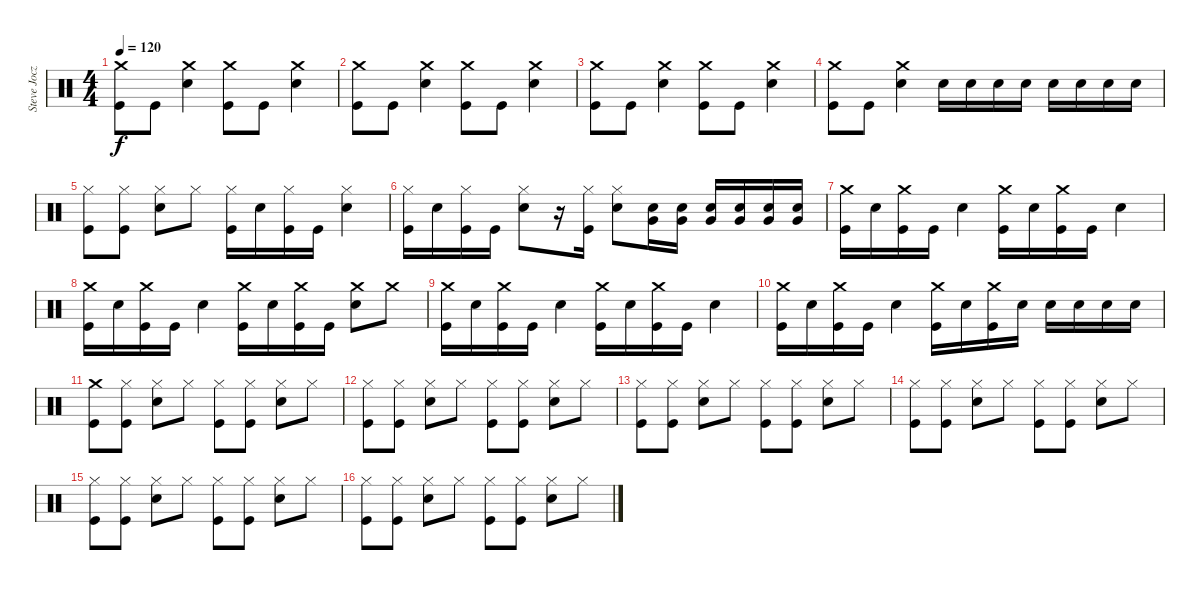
\track ("Steve Jocz (STEVO)" "Steve Jocz") {instrument percussion}
\staff {score}
\articulation defaults
\ts (4 4)
\tempo 120
\clef neutral
\ks c
("Crash medium (hit)" "Kick (hit)").8{dy f} "Kick (hit)".8 ("Crash medium (hit)" "Snare (hit) 2").4 ("Crash medium (hit)" "Kick (hit)").8 "Kick (hit)".8 ("Crash medium (hit)" "Snare (hit) 2").4 |
("Crash medium (hit)" "Kick (hit)").8 "Kick (hit)".8 ("Crash medium (hit)" "Snare (hit) 2").4 ("Crash medium (hit)" "Kick (hit)").8 "Kick (hit)".8 ("Crash medium (hit)" "Snare (hit) 2").4 |
("Crash medium (hit)" "Kick (hit)").8 "Kick (hit)".8 ("Crash medium (hit)" "Snare (hit) 2").4 ("Crash medium (hit)" "Kick (hit)").8 "Kick (hit)".8 ("Crash medium (hit)" "Snare (hit) 2").4 |
("Crash medium (hit)" "Kick (hit)").8 "Kick (hit)".8 ("Crash medium (hit)" "Snare (hit) 2").4 "Snare (hit) 2".16 "Snare (hit) 2".16 "Snare (hit) 2".16 "Snare (hit) 2".16 "Snare (hit) 2".16 "Snare (hit) 2".16 "Snare (hit) 2".16 "Snare (hit) 2".16 |
("Hi-Hat (closed)" "Kick (hit)").8 ("Hi-Hat (closed)" "Kick (hit)").8 ("Hi-Hat (closed)" "Snare (hit) 2").8 "Hi-Hat (closed)".8 ("Hi-Hat (closed)" "Kick (hit)").16 "Snare (hit) 2".16 ("Hi-Hat (closed)" "Kick (hit)").16 "Kick (hit)".16 ("Hi-Hat (closed)" "Snare (hit) 2").4 |
("Hi-Hat (closed)" "Kick (hit)").16 "Snare (hit) 2".16 ("Hi-Hat (closed)" "Kick (hit)").16 "Kick (hit)".16 ("Hi-Hat (closed)" "Snare (hit) 2").8 r.16 ("Hi-Hat (closed)" "Kick (hit)").16 ("Hi-Hat (closed)" "Snare (hit) 2").8 ("Very Low Tom (hit)" "Snare (hit) 2").16 ("Very Low Tom (hit)" "Snare (hit) 2").16 ("Very Low Tom (hit)" "Snare (hit) 2").16 ("Very Low Tom (hit)" "Snare (hit) 2").16 ("Very Low Tom (hit)" "Snare (hit) 2").16 ("Very Low Tom (hit)" "Snare (hit) 2").16 |
("Crash medium (hit)" "Kick (hit)").16 "Snare (hit) 2".16 ("Crash medium (hit)" "Kick (hit)").16 "Kick (hit)".16 "Snare (hit) 2".4 ("Crash medium (hit)" "Kick (hit)").16 "Snare (hit) 2".16 ("Crash medium (hit)" "Kick (hit)").16 "Kick (hit)".16 "Snare (hit) 2".4 |
("Crash medium (hit)" "Kick (hit)").16 "Snare (hit) 2".16 ("Crash medium (hit)" "Kick (hit)").16 "Kick (hit)".16 "Snare (hit) 2".4 ("Crash medium (hit)" "Kick (hit)").16 "Snare (hit) 2".16 ("Crash medium (hit)" "Kick (hit)").16 "Kick (hit)".16 ("Crash medium (hit)" "Snare (hit) 2").8 "Crash medium (hit)".8 |
("Crash medium (hit)" "Kick (hit)").16 "Snare (hit) 2".16 ("Crash medium (hit)" "Kick (hit)").16 "Kick (hit)".16 "Snare (hit) 2".4 ("Crash medium (hit)" "Kick (hit)").16 "Snare (hit) 2".16 ("Crash medium (hit)" "Kick (hit)").16 "Kick (hit)".16 "Snare (hit) 2".4 |
("Crash medium (hit)" "Kick (hit)").16 "Snare (hit) 2".16 ("Crash medium (hit)" "Kick (hit)").16 "Kick (hit)".16 "Snare (hit) 2".4 ("Crash medium (hit)" "Kick (hit)").16 "Snare (hit) 2".16 ("Crash medium (hit)" "Kick (hit)").16 "Snare (hit) 2".16 "Snare (hit) 2".16 "Snare (hit) 2".16 "Snare (hit) 2".16 "Snare (hit) 2".16 |
("Crash medium (hit)" "Kick (hit)").8 ("Hi-Hat (closed)" "Kick (hit)").8 ("Hi-Hat (closed)" "Snare (hit) 2").8 "Hi-Hat (closed)".8 ("Hi-Hat (closed)" "Kick (hit)").8 ("Hi-Hat (closed)" "Kick (hit)").8 ("Hi-Hat (closed)" "Snare (hit) 2").8 "Hi-Hat (closed)".8 |
("Hi-Hat (closed)" "Kick (hit)").8 ("Hi-Hat (closed)" "Kick (hit)").8 ("Hi-Hat (closed)" "Snare (hit) 2").8 "Hi-Hat (closed)".8 ("Hi-Hat (closed)" "Kick (hit)").8 ("Hi-Hat (closed)" "Kick (hit)").8 ("Hi-Hat (closed)" "Snare (hit) 2").8 "Hi-Hat (closed)".8 |
("Hi-Hat (closed)" "Kick (hit)").8 ("Hi-Hat (closed)" "Kick (hit)").8 ("Hi-Hat (closed)" "Snare (hit) 2").8 "Hi-Hat (closed)".8 ("Hi-Hat (closed)" "Kick (hit)").8 ("Hi-Hat (closed)" "Kick (hit)").8 ("Hi-Hat (closed)" "Snare (hit) 2").8 "Hi-Hat (closed)".8 |
("Hi-Hat (closed)" "Kick (hit)").8 ("Hi-Hat (closed)" "Kick (hit)").8 ("Hi-Hat (closed)" "Snare (hit) 2").8 "Hi-Hat (closed)".8 ("Hi-Hat (closed)" "Kick (hit)").8 ("Hi-Hat (closed)" "Kick (hit)").8 ("Hi-Hat (closed)" "Snare (hit) 2").8 "Hi-Hat (closed)".8 |
("Hi-Hat (closed)" "Kick (hit)").8 ("Hi-Hat (closed)" "Kick (hit)").8 ("Hi-Hat (closed)" "Snare (hit) 2").8 "Hi-Hat (closed)".8 ("Hi-Hat (closed)" "Kick (hit)").8 ("Hi-Hat (closed)" "Kick (hit)").8 ("Hi-Hat (closed)" "Snare (hit) 2").8 "Hi-Hat (closed)".8 |
("Hi-Hat (closed)" "Kick (hit)").8 ("Hi-Hat (closed)" "Kick (hit)").8 ("Hi-Hat (closed)" "Snare (hit) 2").8 "Hi-Hat (closed)".8 ("Hi-Hat (closed)" "Kick (hit)").8 ("Hi-Hat (closed)" "Kick (hit)").8 ("Hi-Hat (closed)" "Snare (hit) 2").8 "Hi-Hat (closed)".8
